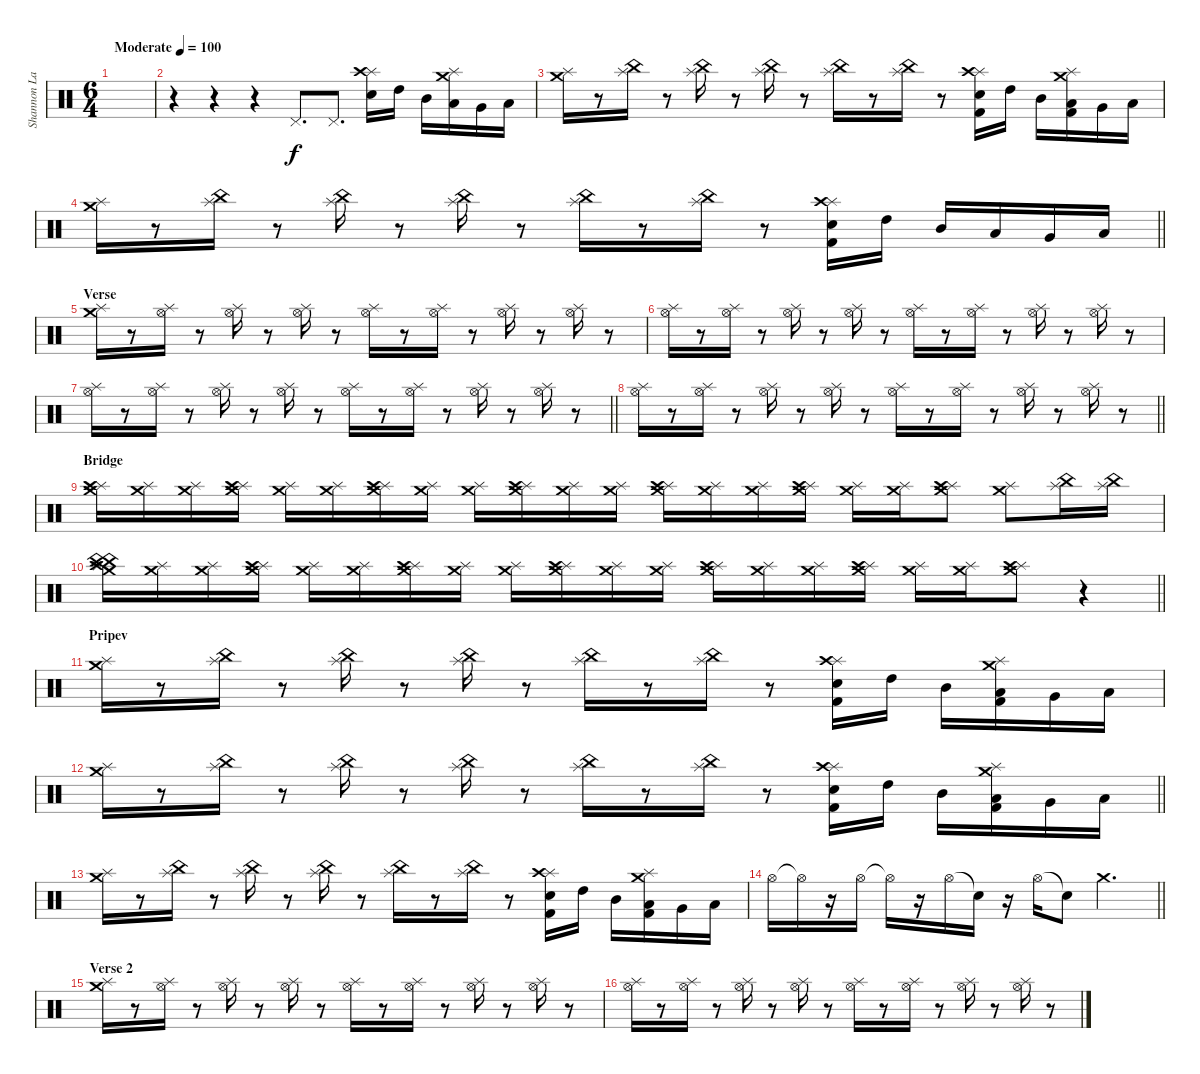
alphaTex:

\track ("Shannon Larkin [1]" "Shannon La") {instrument percussion}
\staff {score}
\articulation defaults
\ts (6 4)
\tempo (100 "Moderate")
\clef neutral
\ks c
|
r.4 r.4 r.4 "Pedal Hi-Hat (hit)".8{d} "Pedal Hi-Hat (hit)".8{d} ("Splash (hit)" "Crash high (hit)" "Electric Snare (hit)").16 "High Tom (hit)".16 "Mid Tom (hit)".16 ("Splash (hit)" "Crash medium (hit)" "Low Tom (hit)").16 "Very Low Tom (hit)".16 "Low Floor Tom (hit)".16 |
("Splash (hit)" "Crash medium (hit)").16 r.8 ("Splash (hit)" "China (hit)").16 r.8 ("Splash (hit)" "China (hit)").16 r.8 ("Splash (hit)" "China (hit)").16 r.8 ("Splash (hit)" "China (hit)").16 r.8 ("Splash (hit)" "China (hit)").16 r.8 ("Splash (hit)" "Crash high (hit)" "Electric Snare (hit)" "Kick (hit) 2").16 "High Tom (hit)".16 "Mid Tom (hit)".16 ("Splash (hit)" "Crash medium (hit)" "Low Tom (hit)" "Kick (hit) 2").16 "Very Low Tom (hit)".16 "Low Floor Tom (hit)".16 |
\barLineRight lightlight
("Splash (hit)" "Crash medium (hit)").16 r.8 ("Splash (hit)" "China (hit)").16 r.8 ("Splash (hit)" "China (hit)").16 r.8 ("Splash (hit)" "China (hit)").16 r.8 ("Splash (hit)" "China (hit)").16 r.8 ("Splash (hit)" "China (hit)").16 r.8 ("Splash (hit)" "Crash high (hit)" "Electric Snare (hit)" "Kick (hit) 2").16 "High Tom (hit)".16 "Mid Tom (hit)".16 "Low Tom (hit)".16 "Very Low Tom (hit)".16 "Low Floor Tom (hit)".16 |
\section ("" "Verse")
("Splash (hit)" "Crash medium (hit)").16 r.8 ("Splash (hit)" "Hi-Hat (open)").16 r.8 ("Splash (hit)" "Hi-Hat (open)").16 r.8 ("Splash (hit)" "Hi-Hat (open)").16 r.8 ("Splash (hit)" "Hi-Hat (open)").16 r.8 ("Splash (hit)" "Hi-Hat (open)").16 r.8 ("Splash (hit)" "Hi-Hat (open)").16 r.8 ("Splash (hit)" "Hi-Hat (open)").16 r.8 |
("Splash (hit)" "Hi-Hat (open)").16 r.8 ("Splash (hit)" "Hi-Hat (open)").16 r.8 ("Splash (hit)" "Hi-Hat (open)").16 r.8 ("Splash (hit)" "Hi-Hat (open)").16 r.8 ("Splash (hit)" "Hi-Hat (open)").16 r.8 ("Splash (hit)" "Hi-Hat (open)").16 r.8 ("Splash (hit)" "Hi-Hat (open)").16 r.8 ("Splash (hit)" "Hi-Hat (open)").16 r.8 |
\barLineRight lightlight
("Splash (hit)" "Hi-Hat (open)").16 r.8 ("Splash (hit)" "Hi-Hat (open)").16 r.8 ("Splash (hit)" "Hi-Hat (open)").16 r.8 ("Splash (hit)" "Hi-Hat (open)").16 r.8 ("Splash (hit)" "Hi-Hat (open)").16 r.8 ("Splash (hit)" "Hi-Hat (open)").16 r.8 ("Splash (hit)" "Hi-Hat (open)").16 r.8 ("Splash (hit)" "Hi-Hat (open)").16 r.8 |
\section ("" "")
\barLineRight lightlight
("Splash (hit)" "Hi-Hat (open)").16 r.8 ("Splash (hit)" "Hi-Hat (open)").16 r.8 ("Splash (hit)" "Hi-Hat (open)").16 r.8 ("Splash (hit)" "Hi-Hat (open)").16 r.8 ("Splash (hit)" "Hi-Hat (open)").16 r.8 ("Splash (hit)" "Hi-Hat (open)").16 r.8 ("Splash (hit)" "Hi-Hat (open)").16 r.8 ("Splash (hit)" "Hi-Hat (open)").16 r.8 |
\section ("" "Bridge")
("Splash (hit)" "Crash high (hit)" "Crash medium (hit)").16 ("Splash (hit)" "Crash medium (hit)").16 ("Splash (hit)" "Crash medium (hit)").16 ("Splash (hit)" "Crash high (hit)" "Crash medium (hit)").16 ("Splash (hit)" "Crash medium (hit)").16 ("Splash (hit)" "Crash medium (hit)").16 ("Splash (hit)" "Crash high (hit)" "Crash medium (hit)").16 ("Splash (hit)" "Crash medium (hit)").16 ("Splash (hit)" "Crash medium (hit)").16 ("Splash (hit)" "Crash high (hit)" "Crash medium (hit)").16 ("Splash (hit)" "Crash medium (hit)").16 ("Splash (hit)" "Crash medium (hit)").16 ("Splash (hit)" "Crash high (hit)" "Crash medium (hit)").16 ("Splash (hit)" "Crash medium (hit)").16 ("Splash (hit)" "Crash medium (hit)").16 ("Splash (hit)" "Crash high (hit)" "Crash medium (hit)").16 ("Splash (hit)" "Crash medium (hit)").16 ("Splash (hit)" "Crash medium (hit)").16 ("Splash (hit)" "Crash high (hit)" "Crash medium (hit)").8 ("Splash (hit)" "Crash medium (hit)").8 ("Splash (hit)" "China (hit)").16 ("Splash (hit)" "China (hit)").16 |
\barLineRight lightlight
("Splash (hit)" "China (hit)" "Crash high (hit)" "China (hit)" "Crash medium (hit)").16 ("Splash (hit)" "Crash medium (hit)").16 ("Splash (hit)" "Crash medium (hit)").16 ("Splash (hit)" "Crash high (hit)" "Crash medium (hit)").16 ("Splash (hit)" "Crash medium (hit)").16 ("Splash (hit)" "Crash medium (hit)").16 ("Splash (hit)" "Crash high (hit)" "Crash medium (hit)").16 ("Splash (hit)" "Crash medium (hit)").16 ("Splash (hit)" "Crash medium (hit)").16 ("Splash (hit)" "Crash high (hit)" "Crash medium (hit)").16 ("Splash (hit)" "Crash medium (hit)").16 ("Splash (hit)" "Crash medium (hit)").16 ("Splash (hit)" "Crash high (hit)" "Crash medium (hit)").16 ("Splash (hit)" "Crash medium (hit)").16 ("Splash (hit)" "Crash medium (hit)").16 ("Splash (hit)" "Crash high (hit)" "Crash medium (hit)").16 ("Splash (hit)" "Crash medium (hit)").16 ("Splash (hit)" "Crash medium (hit)").16 ("Splash (hit)" "Crash high (hit)" "Crash medium (hit)").8 r.4 |
\section ("" "Pripev")
("Splash (hit)" "Crash medium (hit)").16 r.8 ("Splash (hit)" "China (hit)").16 r.8 ("Splash (hit)" "China (hit)").16 r.8 ("Splash (hit)" "China (hit)").16 r.8 ("Splash (hit)" "China (hit)").16 r.8 ("Splash (hit)" "China (hit)").16 r.8 ("Splash (hit)" "Crash high (hit)" "Electric Snare (hit)" "Kick (hit) 2").16 "High Tom (hit)".16 "Mid Tom (hit)".16 ("Splash (hit)" "Crash medium (hit)" "Low Tom (hit)" "Kick (hit) 2").16 "Very Low Tom (hit)".16 "Low Floor Tom (hit)".16 |
\barLineRight lightlight
("Splash (hit)" "Crash medium (hit)").16 r.8 ("Splash (hit)" "China (hit)").16 r.8 ("Splash (hit)" "China (hit)").16 r.8 ("Splash (hit)" "China (hit)").16 r.8 ("Splash (hit)" "China (hit)").16 r.8 ("Splash (hit)" "China (hit)").16 r.8 ("Splash (hit)" "Crash high (hit)" "Electric Snare (hit)" "Kick (hit) 2").16 "High Tom (hit)".16 "Mid Tom (hit)".16 ("Splash (hit)" "Crash medium (hit)" "Low Tom (hit)" "Kick (hit) 2").16 "Very Low Tom (hit)".16 "Low Floor Tom (hit)".16 |
("Splash (hit)" "Crash medium (hit)").16 r.8 ("Splash (hit)" "China (hit)").16 r.8 ("Splash (hit)" "China (hit)").16 r.8 ("Splash (hit)" "China (hit)").16 r.8 ("Splash (hit)" "China (hit)").16 r.8 ("Splash (hit)" "China (hit)").16 r.8 ("Splash (hit)" "Crash high (hit)" "Electric Snare (hit)" "Kick (hit) 2").16 "High Tom (hit)".16 "Mid Tom (hit)".16 ("Splash (hit)" "Crash medium (hit)" "Low Tom (hit)" "Kick (hit) 2").16 "Very Low Tom (hit)".16 "Low Floor Tom (hit)".16 |
\barLineRight lightlight "Hi-Hat (open)".16 "Hi-Hat (open)"{t}.16
r.16 "Hi-Hat (open)".16 "Hi-Hat (open)"{t}.16 r.16 "Hi-Hat (open)".16 "Snare (hit)"{t}.16 r.16 "Hi-Hat (open)".16 "Snare (hit)"{t}.8 "Crash medium (hit)".2{d} |
\section ("" "Verse 2")
("Splash (hit)" "Crash medium (hit)").16 r.8 ("Splash (hit)" "Hi-Hat (open)").16 r.8 ("Splash (hit)" "Hi-Hat (open)").16 r.8 ("Splash (hit)" "Hi-Hat (open)").16 r.8 ("Splash (hit)" "Hi-Hat (open)").16 r.8 ("Splash (hit)" "Hi-Hat (open)").16 r.8 ("Splash (hit)" "Hi-Hat (open)").16 r.8 ("Splash (hit)" "Hi-Hat (open)").16 r.8 |
("Splash (hit)" "Hi-Hat (open)").16 r.8 ("Splash (hit)" "Hi-Hat (open)").16 r.8 ("Splash (hit)" "Hi-Hat (open)").16 r.8 ("Splash (hit)" "Hi-Hat (open)").16 r.8 ("Splash (hit)" "Hi-Hat (open)").16 r.8 ("Splash (hit)" "Hi-Hat (open)").16 r.8 ("Splash (hit)" "Hi-Hat (open)").16 r.8 ("Splash (hit)" "Hi-Hat (open)").16 r.8
